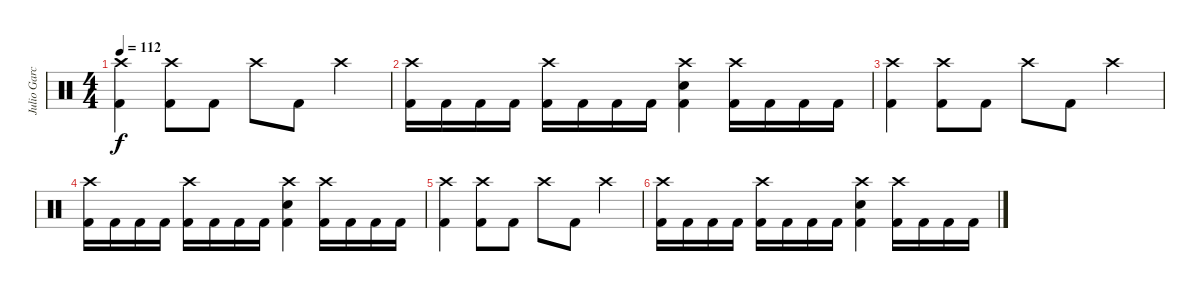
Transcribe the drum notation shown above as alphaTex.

\track ("Julio Garcia" "Julio Garc") {instrument percussion}
\staff {score}
\articulation defaults
\ts (4 4)
\tempo 112
\clef neutral
\ks c
("Crash high (hit)" "Kick (hit) 2").4{dy f} ("Crash high (hit)" "Kick (hit) 2").8 "Kick (hit) 2".8 "Crash high (hit)".8 "Kick (hit) 2".8 "Crash high (hit)".4 |
("Crash high (hit)" "Kick (hit) 2").16 "Kick (hit) 2".16 "Kick (hit) 2".16 "Kick (hit) 2".16 ("Crash high (hit)" "Kick (hit) 2").16 "Kick (hit) 2".16 "Kick (hit) 2".16 "Kick (hit) 2".16 ("Crash high (hit)" "Electric Snare (hit)" "Kick (hit) 2").4 ("Crash high (hit)" "Kick (hit) 2").16 "Kick (hit) 2".16 "Kick (hit) 2".16 "Kick (hit) 2".16 |
("Crash high (hit)" "Kick (hit) 2").4 ("Crash high (hit)" "Kick (hit) 2").8 "Kick (hit) 2".8 "Crash high (hit)".8 "Kick (hit) 2".8 "Crash high (hit)".4 |
("Crash high (hit)" "Kick (hit) 2").16 "Kick (hit) 2".16 "Kick (hit) 2".16 "Kick (hit) 2".16 ("Crash high (hit)" "Kick (hit) 2").16 "Kick (hit) 2".16 "Kick (hit) 2".16 "Kick (hit) 2".16 ("Crash high (hit)" "Electric Snare (hit)" "Kick (hit) 2").4 ("Crash high (hit)" "Kick (hit) 2").16 "Kick (hit) 2".16 "Kick (hit) 2".16 "Kick (hit) 2".16 |
("Crash high (hit)" "Kick (hit) 2").4 ("Crash high (hit)" "Kick (hit) 2").8 "Kick (hit) 2".8 "Crash high (hit)".8 "Kick (hit) 2".8 "Crash high (hit)".4 |
("Crash high (hit)" "Kick (hit) 2").16 "Kick (hit) 2".16 "Kick (hit) 2".16 "Kick (hit) 2".16 ("Crash high (hit)" "Kick (hit) 2").16 "Kick (hit) 2".16 "Kick (hit) 2".16 "Kick (hit) 2".16 ("Crash high (hit)" "Electric Snare (hit)" "Kick (hit) 2").4 ("Crash high (hit)" "Kick (hit) 2").16 "Kick (hit) 2".16 "Kick (hit) 2".16 "Kick (hit) 2".16
